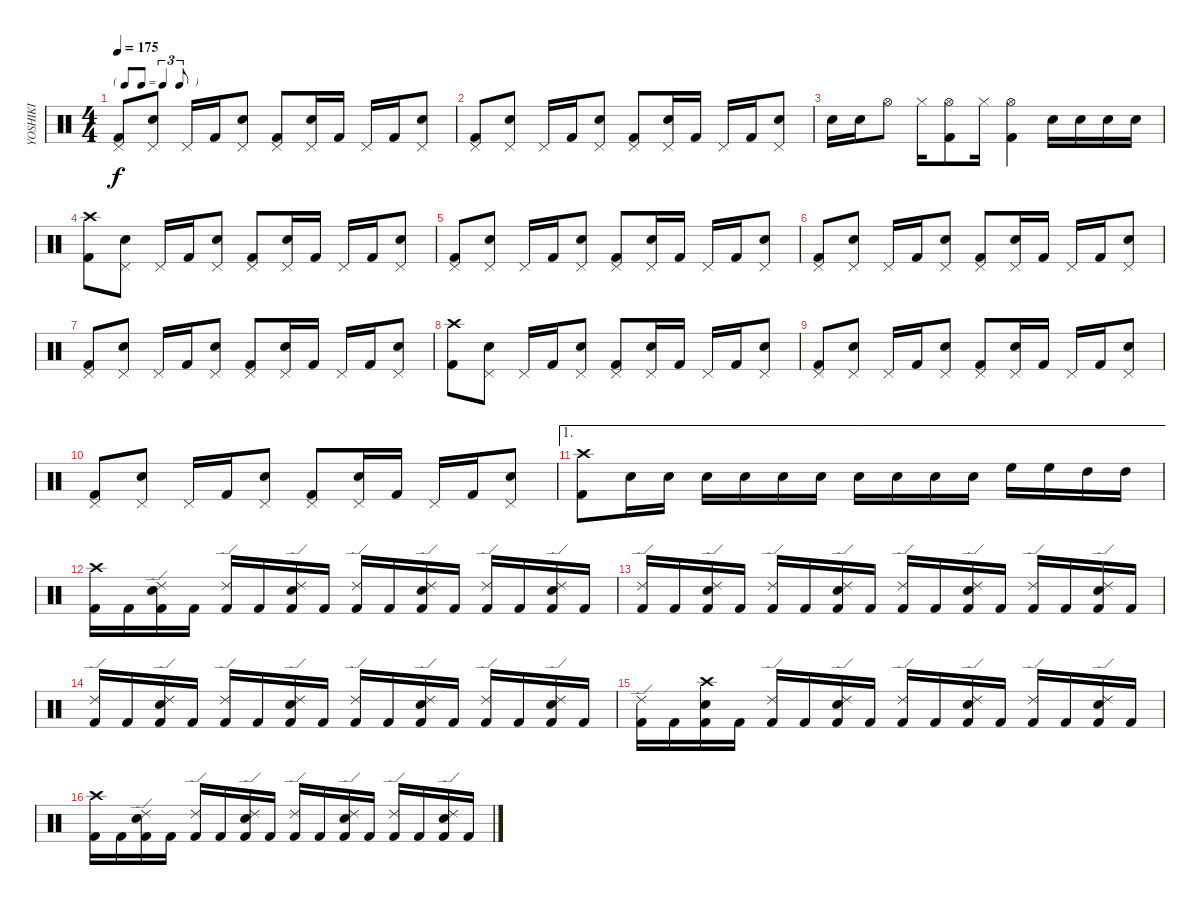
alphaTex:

\track ("YOSHIKI" "YOSHIKI") {instrument percussion}
\staff {score}
\articulation defaults
\ts (4 4)
\tf triplet8th
\tempo 175
\clef neutral
\ks c
("Pedal Hi-Hat (hit)" "Kick (hit) 2").8{dy f} ("Pedal Hi-Hat (hit)" "Snare (hit) 2").8 "Pedal Hi-Hat (hit)".16 "Kick (hit) 2".16 ("Pedal Hi-Hat (hit)" "Snare (hit) 2").8 ("Pedal Hi-Hat (hit)" "Kick (hit) 2").8 ("Pedal Hi-Hat (hit)" "Snare (hit) 2").16 "Kick (hit) 2".16 "Pedal Hi-Hat (hit)".16 "Kick (hit) 2".16 ("Pedal Hi-Hat (hit)" "Snare (hit) 2").8 |
("Pedal Hi-Hat (hit)" "Kick (hit) 2").8 ("Pedal Hi-Hat (hit)" "Snare (hit) 2").8 "Pedal Hi-Hat (hit)".16 "Kick (hit) 2".16 ("Pedal Hi-Hat (hit)" "Snare (hit) 2").8 ("Pedal Hi-Hat (hit)" "Kick (hit) 2").8 ("Pedal Hi-Hat (hit)" "Snare (hit) 2").16 "Kick (hit) 2".16 "Pedal Hi-Hat (hit)".16 "Kick (hit) 2".16 ("Pedal Hi-Hat (hit)" "Snare (hit) 2").8 |
"Snare (hit) 2".16 "Snare (hit) 2".16 "Hi-Hat (open)".8 "Hi-Hat (closed)".16 ("Hi-Hat (open)" "Kick (hit) 2").8 "Hi-Hat (closed)".16 ("Hi-Hat (open)" "Kick (hit) 2").4 "Snare (hit) 2".16 "Snare (hit) 2".16 "Snare (hit) 2".16 "Snare (hit) 2".16 |
("Crash high (hit)" "Kick (hit) 2").8 ("Pedal Hi-Hat (hit)" "Snare (hit) 2").8 "Pedal Hi-Hat (hit)".16 "Kick (hit) 2".16 ("Pedal Hi-Hat (hit)" "Snare (hit) 2").8 ("Pedal Hi-Hat (hit)" "Kick (hit) 2").8 ("Pedal Hi-Hat (hit)" "Snare (hit) 2").16 "Kick (hit) 2".16 "Pedal Hi-Hat (hit)".16 "Kick (hit) 2".16 ("Pedal Hi-Hat (hit)" "Snare (hit) 2").8 |
("Pedal Hi-Hat (hit)" "Kick (hit) 2").8 ("Pedal Hi-Hat (hit)" "Snare (hit) 2").8 "Pedal Hi-Hat (hit)".16 "Kick (hit) 2".16 ("Pedal Hi-Hat (hit)" "Snare (hit) 2").8 ("Pedal Hi-Hat (hit)" "Kick (hit) 2").8 ("Pedal Hi-Hat (hit)" "Snare (hit) 2").16 "Kick (hit) 2".16 "Pedal Hi-Hat (hit)".16 "Kick (hit) 2".16 ("Pedal Hi-Hat (hit)" "Snare (hit) 2").8 |
("Pedal Hi-Hat (hit)" "Kick (hit) 2").8 ("Pedal Hi-Hat (hit)" "Snare (hit) 2").8 "Pedal Hi-Hat (hit)".16 "Kick (hit) 2".16 ("Pedal Hi-Hat (hit)" "Snare (hit) 2").8 ("Pedal Hi-Hat (hit)" "Kick (hit) 2").8 ("Pedal Hi-Hat (hit)" "Snare (hit) 2").16 "Kick (hit) 2".16 "Pedal Hi-Hat (hit)".16 "Kick (hit) 2".16 ("Pedal Hi-Hat (hit)" "Snare (hit) 2").8 |
("Pedal Hi-Hat (hit)" "Kick (hit) 2").8 ("Pedal Hi-Hat (hit)" "Snare (hit) 2").8 "Pedal Hi-Hat (hit)".16 "Kick (hit) 2".16 ("Pedal Hi-Hat (hit)" "Snare (hit) 2").8 ("Pedal Hi-Hat (hit)" "Kick (hit) 2").8 ("Pedal Hi-Hat (hit)" "Snare (hit) 2").16 "Kick (hit) 2".16 "Pedal Hi-Hat (hit)".16 "Kick (hit) 2".16 ("Pedal Hi-Hat (hit)" "Snare (hit) 2").8 |
("Crash high (hit)" "Kick (hit) 2").8 ("Pedal Hi-Hat (hit)" "Snare (hit) 2").8 "Pedal Hi-Hat (hit)".16 "Kick (hit) 2".16 ("Pedal Hi-Hat (hit)" "Snare (hit) 2").8 ("Pedal Hi-Hat (hit)" "Kick (hit) 2").8 ("Pedal Hi-Hat (hit)" "Snare (hit) 2").16 "Kick (hit) 2".16 "Pedal Hi-Hat (hit)".16 "Kick (hit) 2".16 ("Pedal Hi-Hat (hit)" "Snare (hit) 2").8 |
("Pedal Hi-Hat (hit)" "Kick (hit) 2").8 ("Pedal Hi-Hat (hit)" "Snare (hit) 2").8 "Pedal Hi-Hat (hit)".16 "Kick (hit) 2".16 ("Pedal Hi-Hat (hit)" "Snare (hit) 2").8 ("Pedal Hi-Hat (hit)" "Kick (hit) 2").8 ("Pedal Hi-Hat (hit)" "Snare (hit) 2").16 "Kick (hit) 2".16 "Pedal Hi-Hat (hit)".16 "Kick (hit) 2".16 ("Pedal Hi-Hat (hit)" "Snare (hit) 2").8 |
("Pedal Hi-Hat (hit)" "Kick (hit) 2").8 ("Pedal Hi-Hat (hit)" "Snare (hit) 2").8 "Pedal Hi-Hat (hit)".16 "Kick (hit) 2".16 ("Pedal Hi-Hat (hit)" "Snare (hit) 2").8 ("Pedal Hi-Hat (hit)" "Kick (hit) 2").8 ("Pedal Hi-Hat (hit)" "Snare (hit) 2").16 "Kick (hit) 2".16 "Pedal Hi-Hat (hit)".16 "Kick (hit) 2".16 ("Pedal Hi-Hat (hit)" "Snare (hit) 2").8 |
\ae 1
("Crash high (hit)" "Kick (hit) 2").8 "Snare (hit) 2".16 "Snare (hit) 2".16 "Snare (hit) 2".16 "Snare (hit) 2".16 "Snare (hit) 2".16 "Snare (hit) 2".16 "Snare (hit) 2".16 "Snare (hit) 2".16 "Snare (hit) 2".16 "Snare (hit) 2".16 "High Floor Tom (hit)".16 "High Floor Tom (hit)".16 "High Tom (hit)".16 "High Tom (hit)".16 |
("Crash high (hit)" "Kick (hit) 2").16 "Kick (hit) 2".16 ("Ride (edge) 2" "Snare (hit) 2" "Kick (hit) 2").16 "Kick (hit) 2".16 ("Ride (edge) 2" "Kick (hit) 2").16 "Kick (hit) 2".16 ("Ride (edge) 2" "Snare (hit) 2" "Kick (hit) 2").16 "Kick (hit) 2".16 ("Ride (edge) 2" "Kick (hit) 2").16 "Kick (hit) 2".16 ("Ride (edge) 2" "Snare (hit) 2" "Kick (hit) 2").16 "Kick (hit) 2".16 ("Ride (edge) 2" "Kick (hit) 2").16 "Kick (hit) 2".16 ("Ride (edge) 2" "Snare (hit) 2" "Kick (hit) 2").16 "Kick (hit) 2".16 |
("Ride (edge) 2" "Kick (hit) 2").16 "Kick (hit) 2".16 ("Ride (edge) 2" "Snare (hit) 2" "Kick (hit) 2").16 "Kick (hit) 2".16 ("Ride (edge) 2" "Kick (hit) 2").16 "Kick (hit) 2".16 ("Ride (edge) 2" "Snare (hit) 2" "Kick (hit) 2").16 "Kick (hit) 2".16 ("Ride (edge) 2" "Kick (hit) 2").16 "Kick (hit) 2".16 ("Ride (edge) 2" "Snare (hit) 2" "Kick (hit) 2").16 "Kick (hit) 2".16 ("Ride (edge) 2" "Kick (hit) 2").16 "Kick (hit) 2".16 ("Ride (edge) 2" "Snare (hit) 2" "Kick (hit) 2").16 "Kick (hit) 2".16 |
("Ride (edge) 2" "Kick (hit) 2").16 "Kick (hit) 2".16 ("Ride (edge) 2" "Snare (hit) 2" "Kick (hit) 2").16 "Kick (hit) 2".16 ("Ride (edge) 2" "Kick (hit) 2").16 "Kick (hit) 2".16 ("Ride (edge) 2" "Snare (hit) 2" "Kick (hit) 2").16 "Kick (hit) 2".16 ("Ride (edge) 2" "Kick (hit) 2").16 "Kick (hit) 2".16 ("Ride (edge) 2" "Snare (hit) 2" "Kick (hit) 2").16 "Kick (hit) 2".16 ("Ride (edge) 2" "Kick (hit) 2").16 "Kick (hit) 2".16 ("Ride (edge) 2" "Snare (hit) 2" "Kick (hit) 2").16 "Kick (hit) 2".16 |
("Ride (edge) 2" "Kick (hit) 2").16 "Kick (hit) 2".16 ("Crash high (hit)" "Snare (hit) 2" "Kick (hit) 2").16 "Kick (hit) 2".16 ("Ride (edge) 2" "Kick (hit) 2").16 "Kick (hit) 2".16 ("Ride (edge) 2" "Snare (hit) 2" "Kick (hit) 2").16 "Kick (hit) 2".16 ("Ride (edge) 2" "Kick (hit) 2").16 "Kick (hit) 2".16 ("Ride (edge) 2" "Snare (hit) 2" "Kick (hit) 2").16 "Kick (hit) 2".16 ("Ride (edge) 2" "Kick (hit) 2").16 "Kick (hit) 2".16 ("Ride (edge) 2" "Snare (hit) 2" "Kick (hit) 2").16 "Kick (hit) 2".16 |
("Crash high (hit)" "Kick (hit) 2").16 "Kick (hit) 2".16 ("Ride (edge) 2" "Snare (hit) 2" "Kick (hit) 2").16 "Kick (hit) 2".16 ("Ride (edge) 2" "Kick (hit) 2").16 "Kick (hit) 2".16 ("Ride (edge) 2" "Snare (hit) 2" "Kick (hit) 2").16 "Kick (hit) 2".16 ("Ride (edge) 2" "Kick (hit) 2").16 "Kick (hit) 2".16 ("Ride (edge) 2" "Snare (hit) 2" "Kick (hit) 2").16 "Kick (hit) 2".16 ("Ride (edge) 2" "Kick (hit) 2").16 "Kick (hit) 2".16 ("Ride (edge) 2" "Snare (hit) 2" "Kick (hit) 2").16 "Kick (hit) 2".16
